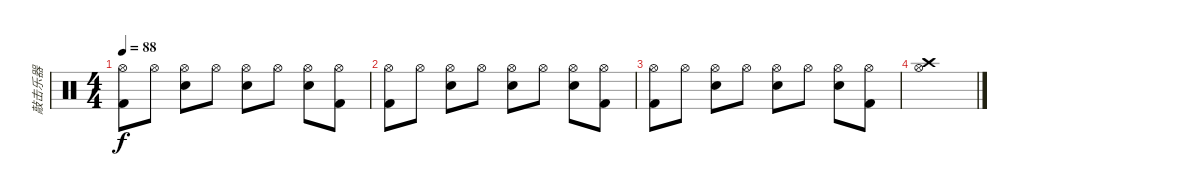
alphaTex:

\track ("敲击乐器" "敲击乐器") {instrument percussion}
\staff {score}
\articulation defaults
\ts (4 4)
\tempo 88
\clef neutral
\ks c
("Kick (hit) 2" "Hi-Hat (open)").8{dy f} "Hi-Hat (open)".8 ("Hand Clap (hit)" "Hi-Hat (open)").8 "Hi-Hat (open)".8 ("Electric Snare (hit)" "Hi-Hat (open)").8 "Hi-Hat (open)".8 ("Hand Clap (hit)" "Hi-Hat (open)").8 ("Kick (hit) 2" "Hi-Hat (open)").8 |
("Kick (hit) 2" "Hi-Hat (open)").8 "Hi-Hat (open)".8 ("Hand Clap (hit)" "Hi-Hat (open)").8 "Hi-Hat (open)".8 ("Electric Snare (hit)" "Hi-Hat (open)").8 "Hi-Hat (open)".8 ("Hand Clap (hit)" "Hi-Hat (open)").8 ("Kick (hit) 2" "Hi-Hat (open)").8 |
("Kick (hit) 2" "Hi-Hat (open)").8 "Hi-Hat (open)".8 ("Hand Clap (hit)" "Hi-Hat (open)").8 "Hi-Hat (open)".8 ("Electric Snare (hit)" "Hi-Hat (open)").8 "Hi-Hat (open)".8 ("Hand Clap (hit)" "Hi-Hat (open)").8 ("Kick (hit) 2" "Hi-Hat (open)").8 |
("Crash high (hit)" "Hi-Hat (open)").1
